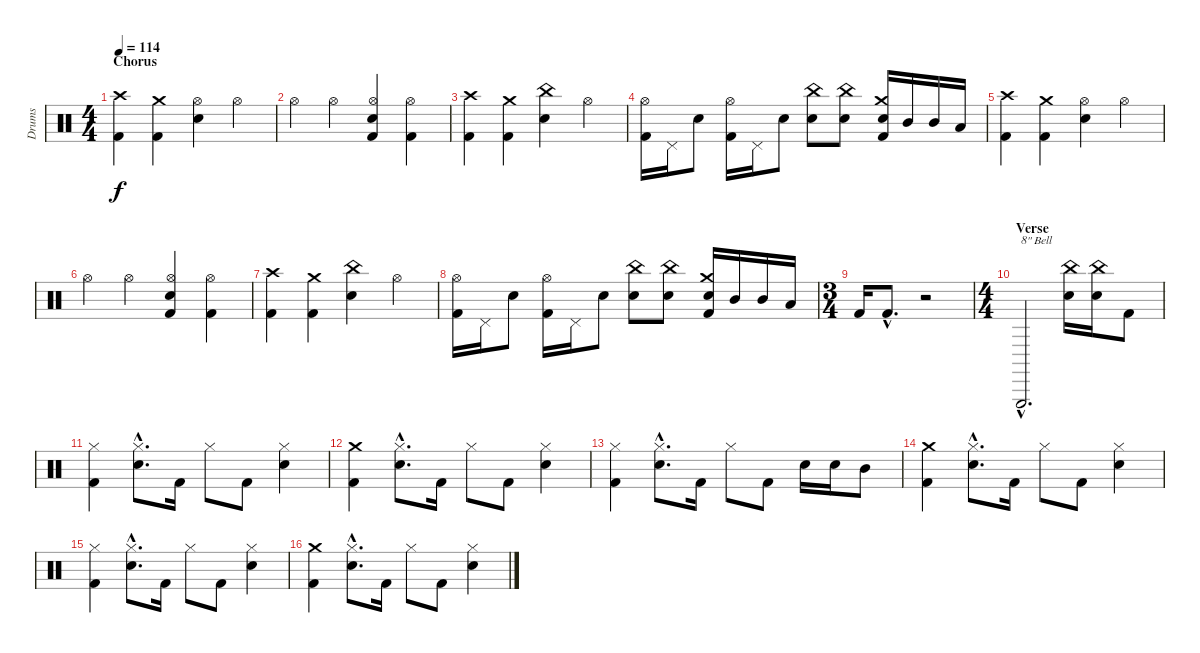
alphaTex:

\track ("Drums" "Drums") {instrument percussion}
\staff {score}
\articulation defaults
\ts (4 4)
\section ("" "Chorus")
\tempo 114
\clef neutral
\ks c
("Crash high (hit)" "Kick (hit) 2").4{dy f} ("Crash medium (hit)" "Kick (hit) 2").4 ("Hi-Hat (open)" "Snare (hit) 2").4 "Hi-Hat (open)".4 |
"Hi-Hat (open)".4 "Hi-Hat (open)".4 ("Hi-Hat (open)" "Snare (hit) 2" "Kick (hit) 2").4 ("Hi-Hat (open)" "Kick (hit) 2").4 |
("Crash high (hit)" "Kick (hit) 2").4 ("Crash medium (hit)" "Kick (hit) 2").4 ("China (hit)" "Snare (hit) 2").4 "Hi-Hat (open)".4 |
("Hi-Hat (open)" "Kick (hit) 2").16 "Pedal Hi-Hat (hit)".16 "Snare (hit) 2".8 ("Hi-Hat (open)" "Kick (hit) 2").16 "Pedal Hi-Hat (hit)".16 "Snare (hit) 2".8 ("China (hit)" "Snare (hit) 2").8 ("China (hit)" "Snare (hit) 2").8 ("Crash medium (hit)" "Snare (hit) 2" "Kick (hit) 2").16 "Mid Tom (hit)".16 "Mid Tom (hit)".16 "Low Tom (hit)".16 |
("Crash high (hit)" "Kick (hit) 2").4 ("Crash medium (hit)" "Kick (hit) 2").4 ("Hi-Hat (open)" "Snare (hit) 2").4 "Hi-Hat (open)".4 |
"Hi-Hat (open)".4 "Hi-Hat (open)".4 ("Hi-Hat (open)" "Snare (hit) 2" "Kick (hit) 2").4 ("Hi-Hat (open)" "Kick (hit) 2").4 |
("Crash high (hit)" "Kick (hit) 2").4 ("Crash medium (hit)" "Kick (hit) 2").4 ("China (hit)" "Snare (hit) 2").4 "Hi-Hat (open)".4 |
("Hi-Hat (open)" "Kick (hit) 2").16 "Pedal Hi-Hat (hit)".16 "Snare (hit) 2".8 ("Hi-Hat (open)" "Kick (hit) 2").16 "Pedal Hi-Hat (hit)".16 "Snare (hit) 2".8 ("China (hit)" "Snare (hit) 2").8 ("China (hit)" "Snare (hit) 2").8 ("Crash medium (hit)" "Snare (hit) 2" "Kick (hit) 2").16 "Mid Tom (hit)".16 "Mid Tom (hit)".16 "Low Tom (hit)".16 |
\ts (3 4)
"Kick (hit) 2".16 "Kick (hit) 2"{hac}.8{d} r.2 |
\ts (4 4)
\section ("" "Verse")
"Triangle (hit)"{hac}.2{d txt "8\" Bell"} ("China (hit)" "Snare (hit) 2").16 ("China (hit)" "Snare (hit) 2").16 "Kick (hit) 2".8 |
("Hi-Hat (closed)" "Kick (hit) 2").4 ("Hi-Hat (closed)"{hac} "Snare (hit) 2"{hac}).8{d} "Kick (hit) 2".16 "Hi-Hat (closed)".8 "Kick (hit) 2".8 ("Hi-Hat (closed)" "Snare (hit) 2").4 |
("Crash medium (hit)" "Kick (hit) 2").4 ("Hi-Hat (closed)"{hac} "Snare (hit) 2"{hac}).8{d} "Kick (hit) 2".16 "Hi-Hat (closed)".8 "Kick (hit) 2".8 ("Hi-Hat (closed)" "Snare (hit) 2").4 |
("Hi-Hat (closed)" "Kick (hit) 2").4 ("Hi-Hat (closed)"{hac} "Snare (hit) 2"{hac}).8{d} "Kick (hit) 2".16 "Hi-Hat (closed)".8 "Kick (hit) 2".8 "Snare (hit) 2".16 "Snare (hit) 2".16 "Mid Tom (hit)".8 |
("Crash medium (hit)" "Kick (hit) 2").4 ("Hi-Hat (closed)"{hac} "Snare (hit) 2"{hac}).8{d} "Kick (hit) 2".16 "Hi-Hat (closed)".8 "Kick (hit) 2".8 ("Hi-Hat (closed)" "Snare (hit) 2").4 |
("Hi-Hat (closed)" "Kick (hit) 2").4 ("Hi-Hat (closed)"{hac} "Snare (hit) 2"{hac}).8{d} "Kick (hit) 2".16 "Hi-Hat (closed)".8 "Kick (hit) 2".8 ("Hi-Hat (closed)" "Snare (hit) 2").4 |
("Crash medium (hit)" "Kick (hit) 2").4 ("Hi-Hat (closed)"{hac} "Snare (hit) 2"{hac}).8{d} "Kick (hit) 2".16 "Hi-Hat (closed)".8 "Kick (hit) 2".8 ("Hi-Hat (closed)" "Snare (hit) 2").4
